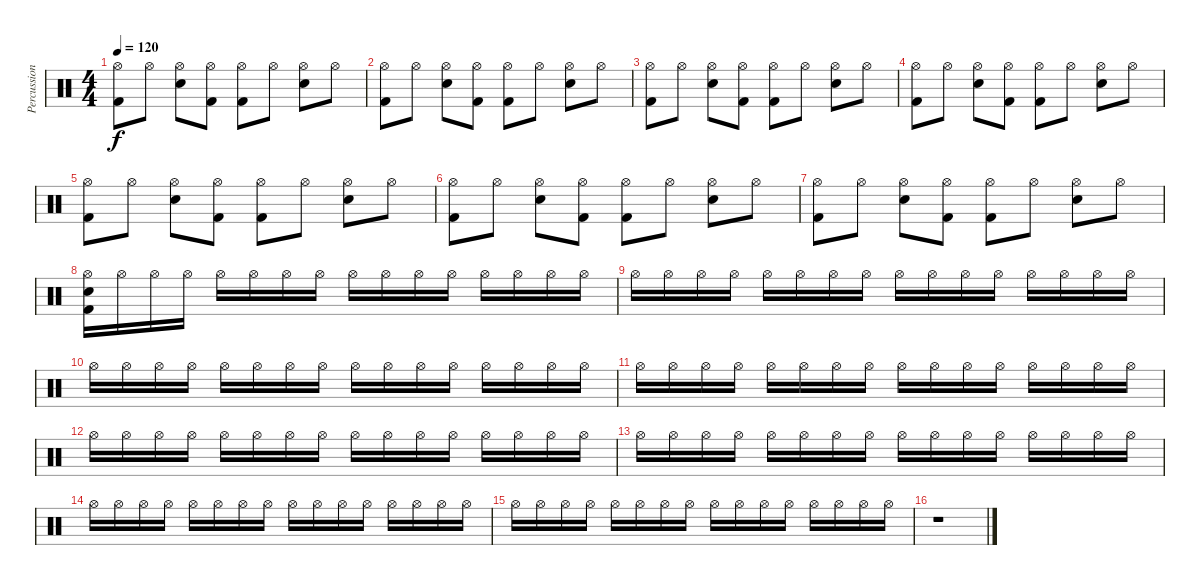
\track ("Percussion" "Percussion") {instrument percussion}
\staff {score}
\articulation defaults
\ts (4 4)
\tempo 120
\clef neutral
\ks c
("Hi-Hat (open)" "Kick (hit) 2").8{dy f} "Hi-Hat (open)".8 ("Hi-Hat (open)" "Snare (hit) 2").8 ("Hi-Hat (open)" "Kick (hit) 2").8 ("Hi-Hat (open)" "Kick (hit) 2").8 "Hi-Hat (open)".8 ("Hi-Hat (open)" "Snare (hit) 2").8 "Hi-Hat (open)".8 |
("Hi-Hat (open)" "Kick (hit) 2").8 "Hi-Hat (open)".8 ("Hi-Hat (open)" "Snare (hit) 2").8 ("Hi-Hat (open)" "Kick (hit) 2").8 ("Hi-Hat (open)" "Kick (hit) 2").8 "Hi-Hat (open)".8 ("Hi-Hat (open)" "Snare (hit) 2").8 "Hi-Hat (open)".8 |
("Hi-Hat (open)" "Kick (hit) 2").8 "Hi-Hat (open)".8 ("Hi-Hat (open)" "Snare (hit) 2").8 ("Hi-Hat (open)" "Kick (hit) 2").8 ("Hi-Hat (open)" "Kick (hit) 2").8 "Hi-Hat (open)".8 ("Hi-Hat (open)" "Snare (hit) 2").8 "Hi-Hat (open)".8 |
("Hi-Hat (open)" "Kick (hit) 2").8 "Hi-Hat (open)".8 ("Hi-Hat (open)" "Snare (hit) 2").8 ("Hi-Hat (open)" "Kick (hit) 2").8 ("Hi-Hat (open)" "Kick (hit) 2").8 "Hi-Hat (open)".8 ("Hi-Hat (open)" "Snare (hit) 2").8 "Hi-Hat (open)".8 |
("Hi-Hat (open)" "Kick (hit) 2").8 "Hi-Hat (open)".8 ("Hi-Hat (open)" "Snare (hit) 2").8 ("Hi-Hat (open)" "Kick (hit) 2").8 ("Hi-Hat (open)" "Kick (hit) 2").8 "Hi-Hat (open)".8 ("Hi-Hat (open)" "Snare (hit) 2").8 "Hi-Hat (open)".8 |
("Hi-Hat (open)" "Kick (hit) 2").8 "Hi-Hat (open)".8 ("Hi-Hat (open)" "Snare (hit) 2").8 ("Hi-Hat (open)" "Kick (hit) 2").8 ("Hi-Hat (open)" "Kick (hit) 2").8 "Hi-Hat (open)".8 ("Hi-Hat (open)" "Snare (hit) 2").8 "Hi-Hat (open)".8 |
("Hi-Hat (open)" "Kick (hit) 2").8 "Hi-Hat (open)".8 ("Hi-Hat (open)" "Snare (hit) 2").8 ("Hi-Hat (open)" "Kick (hit) 2").8 ("Hi-Hat (open)" "Kick (hit) 2").8 "Hi-Hat (open)".8 ("Hi-Hat (open)" "Snare (hit) 2").8 "Hi-Hat (open)".8 |
("Hi-Hat (open)" "Snare (hit) 2" "Kick (hit) 2").16 "Hi-Hat (open)".16 "Hi-Hat (open)".16 "Hi-Hat (open)".16 "Hi-Hat (open)".16 "Hi-Hat (open)".16 "Hi-Hat (open)".16 "Hi-Hat (open)".16 "Hi-Hat (open)".16 "Hi-Hat (open)".16 "Hi-Hat (open)".16 "Hi-Hat (open)".16 "Hi-Hat (open)".16 "Hi-Hat (open)".16 "Hi-Hat (open)".16 "Hi-Hat (open)".16 |
"Hi-Hat (open)".16 "Hi-Hat (open)".16 "Hi-Hat (open)".16 "Hi-Hat (open)".16 "Hi-Hat (open)".16 "Hi-Hat (open)".16 "Hi-Hat (open)".16 "Hi-Hat (open)".16 "Hi-Hat (open)".16 "Hi-Hat (open)".16 "Hi-Hat (open)".16 "Hi-Hat (open)".16 "Hi-Hat (open)".16 "Hi-Hat (open)".16 "Hi-Hat (open)".16 "Hi-Hat (open)".16 |
"Hi-Hat (open)".16 "Hi-Hat (open)".16 "Hi-Hat (open)".16 "Hi-Hat (open)".16 "Hi-Hat (open)".16 "Hi-Hat (open)".16 "Hi-Hat (open)".16 "Hi-Hat (open)".16 "Hi-Hat (open)".16 "Hi-Hat (open)".16 "Hi-Hat (open)".16 "Hi-Hat (open)".16 "Hi-Hat (open)".16 "Hi-Hat (open)".16 "Hi-Hat (open)".16 "Hi-Hat (open)".16 |
"Hi-Hat (open)".16 "Hi-Hat (open)".16 "Hi-Hat (open)".16 "Hi-Hat (open)".16 "Hi-Hat (open)".16 "Hi-Hat (open)".16 "Hi-Hat (open)".16 "Hi-Hat (open)".16 "Hi-Hat (open)".16 "Hi-Hat (open)".16 "Hi-Hat (open)".16 "Hi-Hat (open)".16 "Hi-Hat (open)".16 "Hi-Hat (open)".16 "Hi-Hat (open)".16 "Hi-Hat (open)".16 |
"Hi-Hat (open)".16 "Hi-Hat (open)".16 "Hi-Hat (open)".16 "Hi-Hat (open)".16 "Hi-Hat (open)".16 "Hi-Hat (open)".16 "Hi-Hat (open)".16 "Hi-Hat (open)".16 "Hi-Hat (open)".16 "Hi-Hat (open)".16 "Hi-Hat (open)".16 "Hi-Hat (open)".16 "Hi-Hat (open)".16 "Hi-Hat (open)".16 "Hi-Hat (open)".16 "Hi-Hat (open)".16 |
"Hi-Hat (open)".16 "Hi-Hat (open)".16 "Hi-Hat (open)".16 "Hi-Hat (open)".16 "Hi-Hat (open)".16 "Hi-Hat (open)".16 "Hi-Hat (open)".16 "Hi-Hat (open)".16 "Hi-Hat (open)".16 "Hi-Hat (open)".16 "Hi-Hat (open)".16 "Hi-Hat (open)".16 "Hi-Hat (open)".16 "Hi-Hat (open)".16 "Hi-Hat (open)".16 "Hi-Hat (open)".16 |
"Hi-Hat (open)".16 "Hi-Hat (open)".16 "Hi-Hat (open)".16 "Hi-Hat (open)".16 "Hi-Hat (open)".16 "Hi-Hat (open)".16 "Hi-Hat (open)".16 "Hi-Hat (open)".16 "Hi-Hat (open)".16 "Hi-Hat (open)".16 "Hi-Hat (open)".16 "Hi-Hat (open)".16 "Hi-Hat (open)".16 "Hi-Hat (open)".16 "Hi-Hat (open)".16 "Hi-Hat (open)".16 |
"Hi-Hat (open)".16 "Hi-Hat (open)".16 "Hi-Hat (open)".16 "Hi-Hat (open)".16 "Hi-Hat (open)".16 "Hi-Hat (open)".16 "Hi-Hat (open)".16 "Hi-Hat (open)".16 "Hi-Hat (open)".16 "Hi-Hat (open)".16 "Hi-Hat (open)".16 "Hi-Hat (open)".16 "Hi-Hat (open)".16 "Hi-Hat (open)".16 "Hi-Hat (open)".16 "Hi-Hat (open)".16 |
r.1
